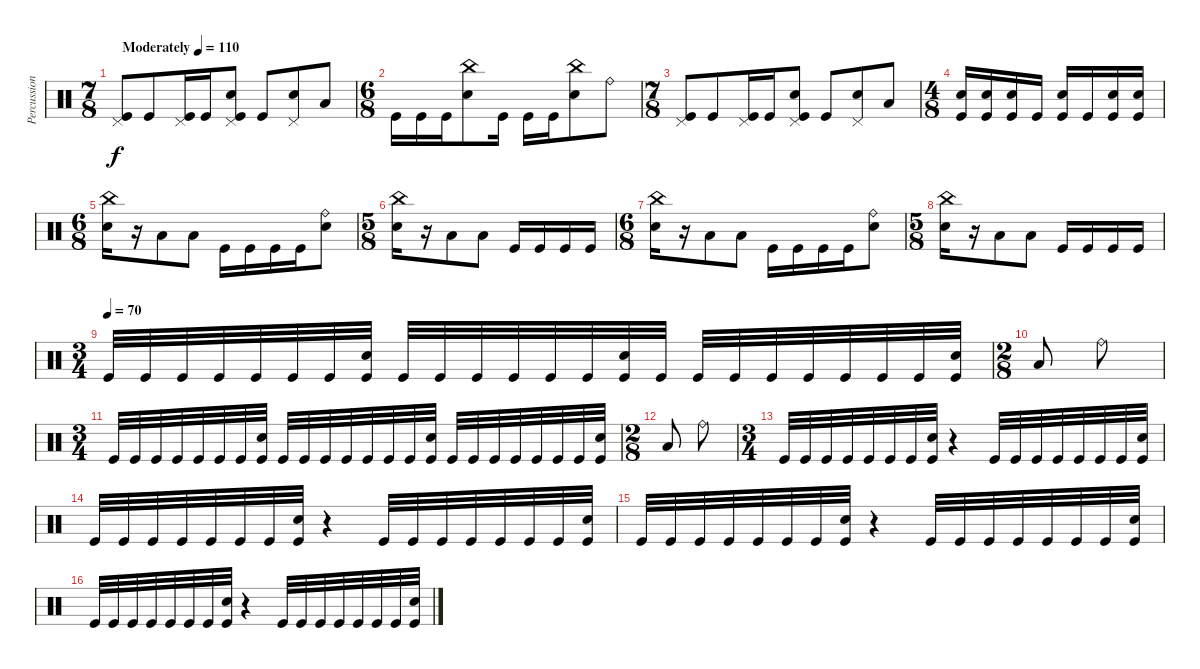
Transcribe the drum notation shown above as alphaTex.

\track ("Percussion" "Percussion") {instrument percussion}
\staff {score}
\articulation defaults
\ts (7 8)
\tempo (110 "Moderately")
\clef neutral
\ks c
("Pedal Hi-Hat (hit)" "Kick (hit)").8{dy f} "Kick (hit)".8 ("Pedal Hi-Hat (hit)" "Kick (hit)").16 "Kick (hit)".16 ("Pedal Hi-Hat (hit)" "Electric Snare (hit)" "Kick (hit)").8 "Kick (hit)".8 ("Pedal Hi-Hat (hit)" "Electric Snare (hit)").8 "Low Floor Tom (hit)".8 |
\ts (6 8)
"Kick (hit)".16 "Kick (hit)".16 "Kick (hit)".16 ("China (hit)" "Electric Snare (hit)").8 "Kick (hit)".16 "Kick (hit)".16 "Kick (hit)".16 ("China (hit)" "Electric Snare (hit)").8 "Ride (bell)".8 |
\ts (7 8)
("Pedal Hi-Hat (hit)" "Kick (hit)").8 "Kick (hit)".8 ("Pedal Hi-Hat (hit)" "Kick (hit)").16 "Kick (hit)".16 ("Pedal Hi-Hat (hit)" "Electric Snare (hit)" "Kick (hit)").8 "Kick (hit)".8 ("Pedal Hi-Hat (hit)" "Electric Snare (hit)").8 "Low Floor Tom (hit)".8 |
\ts (4 8)
("Electric Snare (hit)" "Kick (hit)").16 ("Electric Snare (hit)" "Kick (hit)").16 ("Electric Snare (hit)" "Kick (hit)").16 "Kick (hit)".16 ("Electric Snare (hit)" "Kick (hit)").16 "Kick (hit)".16 ("Electric Snare (hit)" "Kick (hit)").16 ("Electric Snare (hit)" "Kick (hit)").16 |
\ts (6 8)
("China (hit)" "Snare (hit) 2").16 r.16 "Low Floor Tom (hit)".8 "Low Floor Tom (hit)".8 "Kick (hit)".16 "Kick (hit)".16 "Kick (hit)".16 "Kick (hit)".16 ("Ride (bell)" "Electric Snare (hit)").8 |
\ts (5 8)
("China (hit)" "Snare (hit) 2").16 r.16 "Low Floor Tom (hit)".8 "Low Floor Tom (hit)".8 "Kick (hit)".16 "Kick (hit)".16 "Kick (hit)".16 "Kick (hit)".16 |
\ts (6 8)
("China (hit)" "Snare (hit) 2").16 r.16 "Low Floor Tom (hit)".8 "Low Floor Tom (hit)".8 "Kick (hit)".16 "Kick (hit)".16 "Kick (hit)".16 "Kick (hit)".16 ("Ride (bell)" "Electric Snare (hit)").8 |
\ts (5 8)
("China (hit)" "Snare (hit) 2").16 r.16 "Low Floor Tom (hit)".8 "Low Floor Tom (hit)".8 "Kick (hit)".16 "Kick (hit)".16 "Kick (hit)".16 "Kick (hit)".16 |
\ts (3 4)
\tempo (70)
"Kick (hit)".32 "Kick (hit)".32 "Kick (hit)".32 "Kick (hit)".32 "Kick (hit)".32 "Kick (hit)".32 "Kick (hit)".32 ("Electric Snare (hit)" "Kick (hit)").32 "Kick (hit)".32 "Kick (hit)".32 "Kick (hit)".32 "Kick (hit)".32 "Kick (hit)".32 "Kick (hit)".32 ("Electric Snare (hit)" "Kick (hit)").32 "Kick (hit)".32 "Kick (hit)".32 "Kick (hit)".32 "Kick (hit)".32 "Kick (hit)".32 "Kick (hit)".32 "Kick (hit)".32 "Kick (hit)".32 ("Electric Snare (hit)" "Kick (hit)").32 |
\ts (2 8)
"Low Floor Tom (hit)".8 "Ride (bell)".8 |
\ts (3 4)
"Kick (hit)".32 "Kick (hit)".32 "Kick (hit)".32 "Kick (hit)".32 "Kick (hit)".32 "Kick (hit)".32 "Kick (hit)".32 ("Electric Snare (hit)" "Kick (hit)").32 "Kick (hit)".32 "Kick (hit)".32 "Kick (hit)".32 "Kick (hit)".32 "Kick (hit)".32 "Kick (hit)".32 "Kick (hit)".32 ("Electric Snare (hit)" "Kick (hit)").32 "Kick (hit)".32 "Kick (hit)".32 "Kick (hit)".32 "Kick (hit)".32 "Kick (hit)".32 "Kick (hit)".32 "Kick (hit)".32 ("Electric Snare (hit)" "Kick (hit)").32 |
\ts (2 8)
"Low Floor Tom (hit)".8 "Ride (bell)".8 |
\ts (3 4)
"Kick (hit)".32 "Kick (hit)".32 "Kick (hit)".32 "Kick (hit)".32 "Kick (hit)".32 "Kick (hit)".32 "Kick (hit)".32 ("Electric Snare (hit)" "Kick (hit)").32 r.4 "Kick (hit)".32 "Kick (hit)".32 "Kick (hit)".32 "Kick (hit)".32 "Kick (hit)".32 "Kick (hit)".32 "Kick (hit)".32 ("Electric Snare (hit)" "Kick (hit)").32 |
"Kick (hit)".32 "Kick (hit)".32 "Kick (hit)".32 "Kick (hit)".32 "Kick (hit)".32 "Kick (hit)".32 "Kick (hit)".32 ("Electric Snare (hit)" "Kick (hit)").32 r.4 "Kick (hit)".32 "Kick (hit)".32 "Kick (hit)".32 "Kick (hit)".32 "Kick (hit)".32 "Kick (hit)".32 "Kick (hit)".32 ("Electric Snare (hit)" "Kick (hit)").32 |
"Kick (hit)".32 "Kick (hit)".32 "Kick (hit)".32 "Kick (hit)".32 "Kick (hit)".32 "Kick (hit)".32 "Kick (hit)".32 ("Electric Snare (hit)" "Kick (hit)").32 r.4 "Kick (hit)".32 "Kick (hit)".32 "Kick (hit)".32 "Kick (hit)".32 "Kick (hit)".32 "Kick (hit)".32 "Kick (hit)".32 ("Electric Snare (hit)" "Kick (hit)").32 |
"Kick (hit)".32 "Kick (hit)".32 "Kick (hit)".32 "Kick (hit)".32 "Kick (hit)".32 "Kick (hit)".32 "Kick (hit)".32 ("Electric Snare (hit)" "Kick (hit)").32 r.4 "Kick (hit)".32 "Kick (hit)".32 "Kick (hit)".32 "Kick (hit)".32 "Kick (hit)".32 "Kick (hit)".32 "Kick (hit)".32 ("Electric Snare (hit)" "Kick (hit)").32
